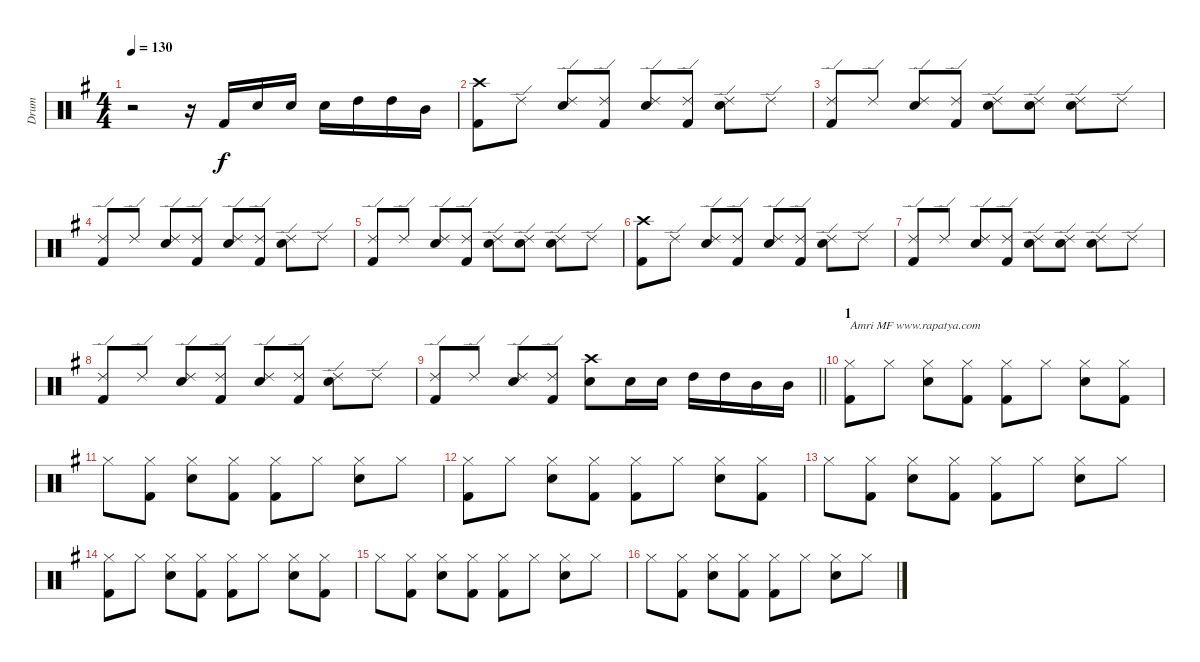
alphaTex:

\track ("Drum" "Drum") {instrument percussion}
\staff {score}
\articulation defaults
\ts (4 4)
\tempo 130
\clef neutral
\ks g
r.2{dy f} r.16 "Kick (hit) 2".16 "Electric Snare (hit)".16 "Electric Snare (hit)".16 "Electric Snare (hit)".16 "High Tom (hit)".16 "High Tom (hit)".16 "Mid Tom (hit)".16 |
("Kick (hit) 2" "Crash high (hit)").8 "Ride (edge) 2".8 ("Ride (edge) 2" "Electric Snare (hit)").8 ("Ride (edge) 2" "Kick (hit) 2").8 ("Electric Snare (hit)" "Ride (edge) 2").8 ("Ride (edge) 2" "Kick (hit) 2").8 ("Electric Snare (hit)" "Ride (edge) 2").8 "Ride (edge) 2".8 |
("Kick (hit) 2" "Ride (edge) 2").8 "Ride (edge) 2".8 ("Ride (edge) 2" "Electric Snare (hit)").8 ("Ride (edge) 2" "Kick (hit) 2").8 ("Electric Snare (hit)" "Ride (edge) 2").8 ("Ride (edge) 2" "Electric Snare (hit)").8 ("Electric Snare (hit)" "Ride (edge) 2").8 "Ride (edge) 2".8 |
("Kick (hit) 2" "Ride (edge) 2").8 "Ride (edge) 2".8 ("Ride (edge) 2" "Electric Snare (hit)").8 ("Ride (edge) 2" "Kick (hit) 2").8 ("Electric Snare (hit)" "Ride (edge) 2").8 ("Ride (edge) 2" "Kick (hit) 2").8 ("Electric Snare (hit)" "Ride (edge) 2").8 "Ride (edge) 2".8 |
("Kick (hit) 2" "Ride (edge) 2").8 "Ride (edge) 2".8 ("Ride (edge) 2" "Electric Snare (hit)").8 ("Ride (edge) 2" "Kick (hit) 2").8 ("Electric Snare (hit)" "Ride (edge) 2").8 ("Ride (edge) 2" "Electric Snare (hit)").8 ("Electric Snare (hit)" "Ride (edge) 2").8 "Ride (edge) 2".8 |
("Kick (hit) 2" "Crash high (hit)").8 "Ride (edge) 2".8 ("Ride (edge) 2" "Electric Snare (hit)").8 ("Ride (edge) 2" "Kick (hit) 2").8 ("Electric Snare (hit)" "Ride (edge) 2").8 ("Ride (edge) 2" "Kick (hit) 2").8 ("Electric Snare (hit)" "Ride (edge) 2").8 "Ride (edge) 2".8 |
("Kick (hit) 2" "Ride (edge) 2").8 "Ride (edge) 2".8 ("Ride (edge) 2" "Electric Snare (hit)").8 ("Ride (edge) 2" "Kick (hit) 2").8 ("Electric Snare (hit)" "Ride (edge) 2").8 ("Ride (edge) 2" "Electric Snare (hit)").8 ("Electric Snare (hit)" "Ride (edge) 2").8 "Ride (edge) 2".8 |
("Kick (hit) 2" "Ride (edge) 2").8 "Ride (edge) 2".8 ("Ride (edge) 2" "Electric Snare (hit)").8 ("Ride (edge) 2" "Kick (hit) 2").8 ("Electric Snare (hit)" "Ride (edge) 2").8 ("Ride (edge) 2" "Kick (hit) 2").8 ("Electric Snare (hit)" "Ride (edge) 2").8 "Ride (edge) 2".8 |
\barLineRight lightlight
("Kick (hit) 2" "Ride (edge) 2").8 "Ride (edge) 2".8 ("Ride (edge) 2" "Electric Snare (hit)").8 ("Ride (edge) 2" "Kick (hit) 2").8 ("Electric Snare (hit)" "Crash high (hit)").8 "Electric Snare (hit)".16 "Electric Snare (hit)".16 "High Tom (hit)".16 "High Tom (hit)".16 "Mid Tom (hit)".16 "Mid Tom (hit)".16 |
\section ("" "1")
("Kick (hit) 2" "Hi-Hat (closed)").8{txt "Amri MF www.rapatya.com"} "Hi-Hat (closed)".8 ("Hi-Hat (closed)" "Electric Snare (hit)").8 ("Kick (hit) 2" "Hi-Hat (closed)").8 ("Kick (hit) 2" "Hi-Hat (closed)").8 "Hi-Hat (closed)".8 ("Hi-Hat (closed)" "Electric Snare (hit)").8 ("Kick (hit) 2" "Hi-Hat (closed)").8 |
"Hi-Hat (closed)".8 ("Kick (hit) 2" "Hi-Hat (closed)").8 ("Hi-Hat (closed)" "Electric Snare (hit)").8 ("Kick (hit) 2" "Hi-Hat (closed)").8 ("Kick (hit) 2" "Hi-Hat (closed)").8 "Hi-Hat (closed)".8 ("Hi-Hat (closed)" "Electric Snare (hit)").8 "Hi-Hat (closed)".8 |
("Kick (hit) 2" "Hi-Hat (closed)").8 "Hi-Hat (closed)".8 ("Hi-Hat (closed)" "Electric Snare (hit)").8 ("Kick (hit) 2" "Hi-Hat (closed)").8 ("Kick (hit) 2" "Hi-Hat (closed)").8 "Hi-Hat (closed)".8 ("Hi-Hat (closed)" "Electric Snare (hit)").8 ("Kick (hit) 2" "Hi-Hat (closed)").8 |
"Hi-Hat (closed)".8 ("Kick (hit) 2" "Hi-Hat (closed)").8 ("Hi-Hat (closed)" "Electric Snare (hit)").8 ("Kick (hit) 2" "Hi-Hat (closed)").8 ("Kick (hit) 2" "Hi-Hat (closed)").8 "Hi-Hat (closed)".8 ("Hi-Hat (closed)" "Electric Snare (hit)").8 "Hi-Hat (closed)".8 |
("Kick (hit) 2" "Hi-Hat (closed)").8 "Hi-Hat (closed)".8 ("Hi-Hat (closed)" "Electric Snare (hit)").8 ("Kick (hit) 2" "Hi-Hat (closed)").8 ("Kick (hit) 2" "Hi-Hat (closed)").8 "Hi-Hat (closed)".8 ("Hi-Hat (closed)" "Electric Snare (hit)").8 ("Kick (hit) 2" "Hi-Hat (closed)").8 |
"Hi-Hat (closed)".8 ("Kick (hit) 2" "Hi-Hat (closed)").8 ("Hi-Hat (closed)" "Electric Snare (hit)").8 ("Kick (hit) 2" "Hi-Hat (closed)").8 ("Kick (hit) 2" "Hi-Hat (closed)").8 "Hi-Hat (closed)".8 ("Hi-Hat (closed)" "Electric Snare (hit)").8 "Hi-Hat (closed)".8 |
"Hi-Hat (closed)".8 ("Kick (hit) 2" "Hi-Hat (closed)").8 ("Hi-Hat (closed)" "Electric Snare (hit)").8 ("Kick (hit) 2" "Hi-Hat (closed)").8 ("Kick (hit) 2" "Hi-Hat (closed)").8 "Hi-Hat (closed)".8 ("Hi-Hat (closed)" "Electric Snare (hit)").8 "Hi-Hat (closed)".8
